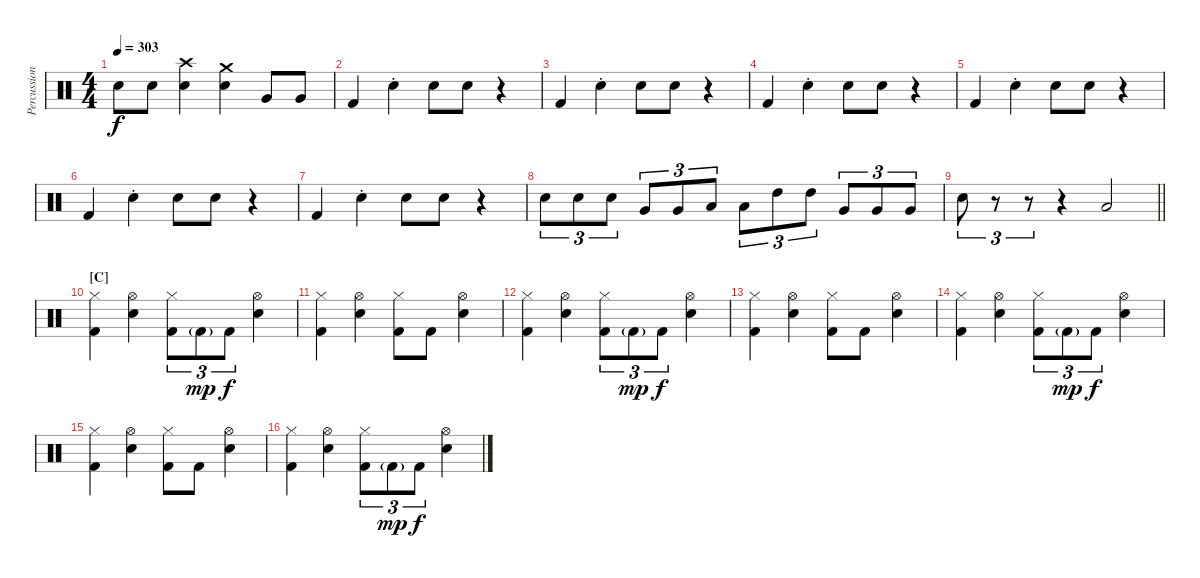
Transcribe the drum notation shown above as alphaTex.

\track ("Percussions" "Percussion") {instrument percussion}
\staff {score}
\articulation defaults
\ts (4 4)
\tempo 303
\clef neutral
\ks c "Electric Snare (hit)".8{dy f} "Electric Snare (hit)".8
("Crash high (hit)" "Electric Snare (hit)").4 ("Crash medium (hit)" "Electric Snare (hit)").4 "Very Low Tom (hit)".8 "Very Low Tom (hit)".8 |
"Kick (hit) 2".4 "Electric Snare (hit)"{st}.4 "Electric Snare (hit)".8 "Electric Snare (hit)".8 r.4 |
"Kick (hit) 2".4 "Electric Snare (hit)"{st}.4 "Electric Snare (hit)".8 "Electric Snare (hit)".8 r.4 |
"Kick (hit) 2".4 "Electric Snare (hit)"{st}.4 "Electric Snare (hit)".8 "Electric Snare (hit)".8 r.4 |
"Kick (hit) 2".4 "Electric Snare (hit)"{st}.4 "Electric Snare (hit)".8 "Electric Snare (hit)".8 r.4 |
"Kick (hit) 2".4 "Electric Snare (hit)"{st}.4 "Electric Snare (hit)".8 "Electric Snare (hit)".8 r.4 |
"Kick (hit) 2".4 "Electric Snare (hit)"{st}.4 "Electric Snare (hit)".8 "Electric Snare (hit)".8 r.4 |
"Electric Snare (hit)".8{tu (3 2)} "Electric Snare (hit)".8{tu (3 2)} "Electric Snare (hit)".8{tu (3 2)} "Very Low Tom (hit)".8{tu (3 2)} "Very Low Tom (hit)".8{tu (3 2)} "Low Tom (hit)".8{tu (3 2)} "Low Tom (hit)".8{tu (3 2)} "High Tom (hit)".8{tu (3 2)} "High Tom (hit)".8{tu (3 2)} "Very Low Tom (hit)".8{tu (3 2)} "Very Low Tom (hit)".8{tu (3 2)} "Very Low Tom (hit)".8{tu (3 2)} |
\barLineRight lightlight "Electric Snare (hit)".8{tu (3 2)}
r.8{tu (3 2)} r.8{tu (3 2)} r.4 "Low Floor Tom (hit)".2 |
\section ("" "[C]")
("Hi-Hat (closed)" "Kick (hit) 2").4 ("Hi-Hat (open)" "Electric Snare (hit)").4 ("Hi-Hat (closed)" "Kick (hit) 2").8{tu (3 2)} "Kick (hit) 2"{g}.8{tu (3 2) dy mp} "Kick (hit) 2".8{tu (3 2) dy f} ("Hi-Hat (open)" "Electric Snare (hit)").4 |
("Hi-Hat (closed)" "Kick (hit) 2").4 ("Hi-Hat (open)" "Electric Snare (hit)").4 ("Hi-Hat (closed)" "Kick (hit) 2").8 "Kick (hit) 2".8 ("Hi-Hat (open)" "Electric Snare (hit)").4 |
("Hi-Hat (closed)" "Kick (hit) 2").4 ("Hi-Hat (open)" "Electric Snare (hit)").4 ("Hi-Hat (closed)" "Kick (hit) 2").8{tu (3 2)} "Kick (hit) 2"{g}.8{tu (3 2) dy mp} "Kick (hit) 2".8{tu (3 2) dy f} ("Hi-Hat (open)" "Electric Snare (hit)").4 |
("Hi-Hat (closed)" "Kick (hit) 2").4 ("Hi-Hat (open)" "Electric Snare (hit)").4 ("Hi-Hat (closed)" "Kick (hit) 2").8 "Kick (hit) 2".8 ("Hi-Hat (open)" "Electric Snare (hit)").4 |
("Hi-Hat (closed)" "Kick (hit) 2").4 ("Hi-Hat (open)" "Electric Snare (hit)").4 ("Hi-Hat (closed)" "Kick (hit) 2").8{tu (3 2)} "Kick (hit) 2"{g}.8{tu (3 2) dy mp} "Kick (hit) 2".8{tu (3 2) dy f} ("Hi-Hat (open)" "Electric Snare (hit)").4 |
("Hi-Hat (closed)" "Kick (hit) 2").4 ("Hi-Hat (open)" "Electric Snare (hit)").4 ("Hi-Hat (closed)" "Kick (hit) 2").8 "Kick (hit) 2".8 ("Hi-Hat (open)" "Electric Snare (hit)").4 |
("Hi-Hat (closed)" "Kick (hit) 2").4 ("Hi-Hat (open)" "Electric Snare (hit)").4 ("Hi-Hat (closed)" "Kick (hit) 2").8{tu (3 2)} "Kick (hit) 2"{g}.8{tu (3 2) dy mp} "Kick (hit) 2".8{tu (3 2) dy f} ("Hi-Hat (open)" "Electric Snare (hit)").4
